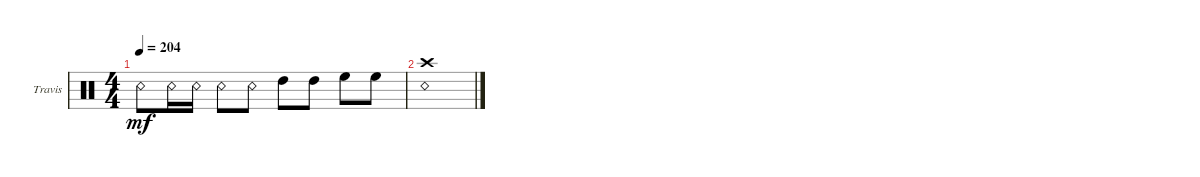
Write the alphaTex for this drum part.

\defaultSystemsLayout 4
\bracketExtendMode groupsimilarinstruments
\firstSystemTrackNameOrientation horizontal
\otherSystemsTrackNameOrientation horizontal
\track ("Travis Barker" "Travis") {instrument percussion}
\staff {score}
\articulation defaults
\ts (4 4)
\tempo 204
\clef neutral
\ks c "Snare (rim shot)".8{dy mf} "Snare (rim shot)".16 "Snare (rim shot)".16 "Snare (rim shot)".8 "Snare (rim shot)".8 "High Tom (hit)".8 "High Tom (hit)".8 "High Floor Tom (hit)".8 "High Floor Tom (hit)".8
|
("Snare (rim shot)" "Crash high (hit)").1
